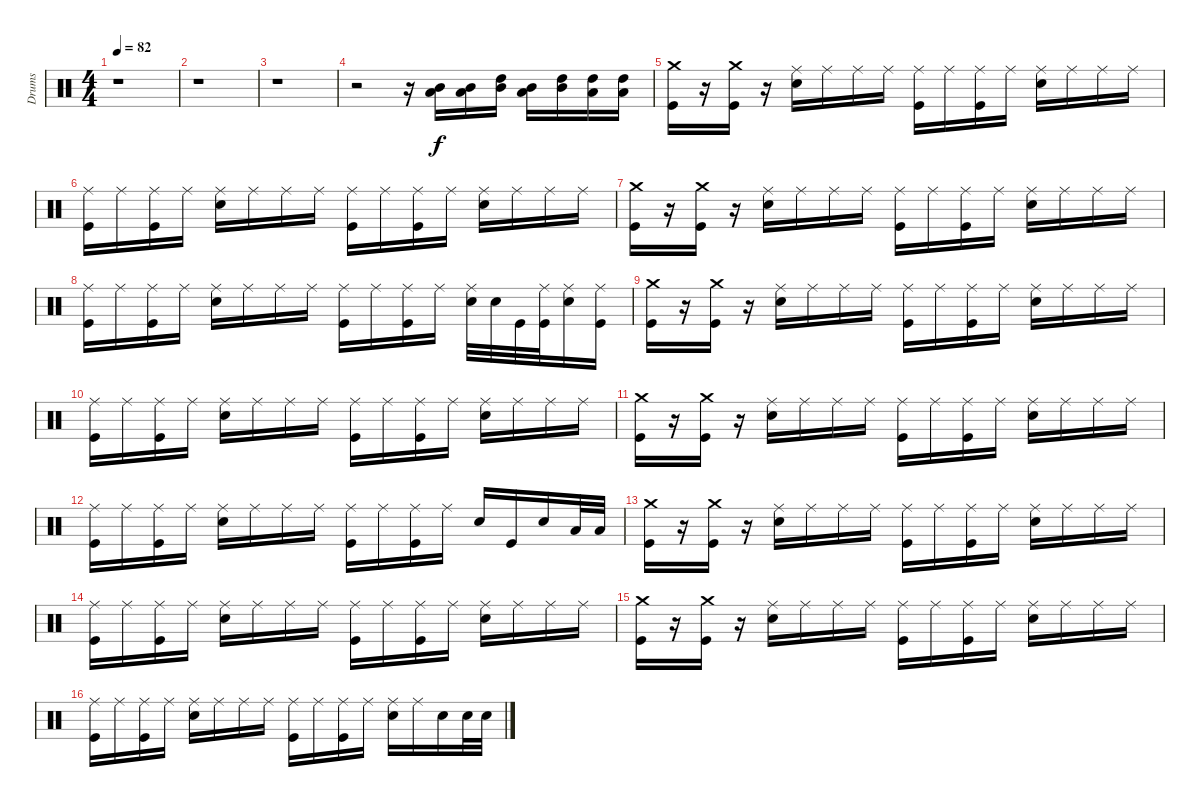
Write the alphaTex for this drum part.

\track ("Drums" "Drums") {instrument percussion}
\staff {score}
\articulation defaults
\ts (4 4)
\tempo 82
\clef neutral
\ks c
r.1{dy f} |
r.1 |
r.1 |
r.2 r.16 ("Mid Tom (hit)" "Low Tom (hit)").16 ("Mid Tom (hit)" "Low Tom (hit)").16 ("High Tom (hit)" "Mid Tom (hit)").16 ("Mid Tom (hit)" "Low Tom (hit)").16 ("High Tom (hit)" "Mid Tom (hit)").16 ("High Tom (hit)" "Low Tom (hit)").16 ("High Tom (hit)" "Low Tom (hit)").16 |
("Crash medium (hit)" "Kick (hit)").16 r.16 ("Crash medium (hit)" "Kick (hit)").16 r.16 ("Ride (middle)" "Snare (hit) 2").16 "Ride (middle)".16 "Ride (middle)".16 "Ride (middle)".16 ("Ride (middle)" "Kick (hit)").16 "Ride (middle)".16 ("Ride (middle)" "Kick (hit)").16 "Ride (middle)".16 ("Ride (middle)" "Snare (hit) 2").16 "Ride (middle)".16 "Ride (middle)".16 "Ride (middle)".16 |
("Ride (middle)" "Kick (hit)").16 "Ride (middle)".16 ("Ride (middle)" "Kick (hit)").16 "Ride (middle)".16 ("Ride (middle)" "Snare (hit) 2").16 "Ride (middle)".16 "Ride (middle)".16 "Ride (middle)".16 ("Ride (middle)" "Kick (hit)").16 "Ride (middle)".16 ("Ride (middle)" "Kick (hit)").16 "Ride (middle)".16 ("Ride (middle)" "Snare (hit) 2").16 "Ride (middle)".16 "Ride (middle)".16 "Ride (middle)".16 |
("Crash medium (hit)" "Kick (hit)").16 r.16 ("Crash medium (hit)" "Kick (hit)").16 r.16 ("Ride (middle)" "Snare (hit) 2").16 "Ride (middle)".16 "Ride (middle)".16 "Ride (middle)".16 ("Ride (middle)" "Kick (hit)").16 "Ride (middle)".16 ("Ride (middle)" "Kick (hit)").16 "Ride (middle)".16 ("Ride (middle)" "Snare (hit) 2").16 "Ride (middle)".16 "Ride (middle)".16 "Ride (middle)".16 |
("Ride (middle)" "Kick (hit)").16 "Ride (middle)".16 ("Ride (middle)" "Kick (hit)").16 "Ride (middle)".16 ("Ride (middle)" "Snare (hit) 2").16 "Ride (middle)".16 "Ride (middle)".16 "Ride (middle)".16 ("Ride (middle)" "Kick (hit)").16 "Ride (middle)".16 ("Ride (middle)" "Kick (hit)").16 "Ride (middle)".16 ("Ride (middle)" "Snare (hit) 2").32 "Snare (hit) 2".32 "Kick (hit)".32 ("Ride (middle)" "Kick (hit)").32 ("Ride (middle)" "Snare (hit) 2").16 ("Ride (middle)" "Kick (hit)").16 |
("Crash medium (hit)" "Kick (hit)").16 r.16 ("Crash medium (hit)" "Kick (hit)").16 r.16 ("Ride (middle)" "Snare (hit) 2").16 "Ride (middle)".16 "Ride (middle)".16 "Ride (middle)".16 ("Ride (middle)" "Kick (hit)").16 "Ride (middle)".16 ("Ride (middle)" "Kick (hit)").16 "Ride (middle)".16 ("Ride (middle)" "Snare (hit) 2").16 "Ride (middle)".16 "Ride (middle)".16 "Ride (middle)".16 |
("Ride (middle)" "Kick (hit)").16 "Ride (middle)".16 ("Ride (middle)" "Kick (hit)").16 "Ride (middle)".16 ("Ride (middle)" "Snare (hit) 2").16 "Ride (middle)".16 "Ride (middle)".16 "Ride (middle)".16 ("Ride (middle)" "Kick (hit)").16 "Ride (middle)".16 ("Ride (middle)" "Kick (hit)").16 "Ride (middle)".16 ("Ride (middle)" "Snare (hit) 2").16 "Ride (middle)".16 "Ride (middle)".16 "Ride (middle)".16 |
("Crash medium (hit)" "Kick (hit)").16 r.16 ("Crash medium (hit)" "Kick (hit)").16 r.16 ("Ride (middle)" "Snare (hit) 2").16 "Ride (middle)".16 "Ride (middle)".16 "Ride (middle)".16 ("Ride (middle)" "Kick (hit)").16 "Ride (middle)".16 ("Ride (middle)" "Kick (hit)").16 "Ride (middle)".16 ("Ride (middle)" "Snare (hit) 2").16 "Ride (middle)".16 "Ride (middle)".16 "Ride (middle)".16 |
("Ride (middle)" "Kick (hit)").16 "Ride (middle)".16 ("Ride (middle)" "Kick (hit)").16 "Ride (middle)".16 ("Ride (middle)" "Snare (hit) 2").16 "Ride (middle)".16 "Ride (middle)".16 "Ride (middle)".16 ("Ride (middle)" "Kick (hit)").16 "Ride (middle)".16 ("Ride (middle)" "Kick (hit)").16 "Ride (middle)".16 "Snare (hit) 2".16 "Kick (hit)".16 "Snare (hit) 2".16 "Low Tom (hit)".32 "Low Tom (hit)".32 |
("Crash medium (hit)" "Kick (hit)").16 r.16 ("Crash medium (hit)" "Kick (hit)").16 r.16 ("Ride (middle)" "Snare (hit) 2").16 "Ride (middle)".16 "Ride (middle)".16 "Ride (middle)".16 ("Ride (middle)" "Kick (hit)").16 "Ride (middle)".16 ("Ride (middle)" "Kick (hit)").16 "Ride (middle)".16 ("Ride (middle)" "Snare (hit) 2").16 "Ride (middle)".16 "Ride (middle)".16 "Ride (middle)".16 |
("Ride (middle)" "Kick (hit)").16 "Ride (middle)".16 ("Ride (middle)" "Kick (hit)").16 "Ride (middle)".16 ("Ride (middle)" "Snare (hit) 2").16 "Ride (middle)".16 "Ride (middle)".16 "Ride (middle)".16 ("Ride (middle)" "Kick (hit)").16 "Ride (middle)".16 ("Ride (middle)" "Kick (hit)").16 "Ride (middle)".16 ("Ride (middle)" "Snare (hit) 2").16 "Ride (middle)".16 "Ride (middle)".16 "Ride (middle)".16 |
("Crash medium (hit)" "Kick (hit)").16 r.16 ("Crash medium (hit)" "Kick (hit)").16 r.16 ("Ride (middle)" "Snare (hit) 2").16 "Ride (middle)".16 "Ride (middle)".16 "Ride (middle)".16 ("Ride (middle)" "Kick (hit)").16 "Ride (middle)".16 ("Ride (middle)" "Kick (hit)").16 "Ride (middle)".16 ("Ride (middle)" "Snare (hit) 2").16 "Ride (middle)".16 "Ride (middle)".16 "Ride (middle)".16 |
("Ride (middle)" "Kick (hit)").16 "Ride (middle)".16 ("Ride (middle)" "Kick (hit)").16 "Ride (middle)".16 ("Ride (middle)" "Snare (hit) 2").16 "Ride (middle)".16 "Ride (middle)".16 "Ride (middle)".16 ("Ride (middle)" "Kick (hit)").16 "Ride (middle)".16 ("Ride (middle)" "Kick (hit)").16 "Ride (middle)".16 ("Ride (middle)" "Snare (hit) 2").16 "Ride (middle)".16 "Snare (hit) 2".16 "Snare (hit) 2".32 "Snare (hit) 2".32
